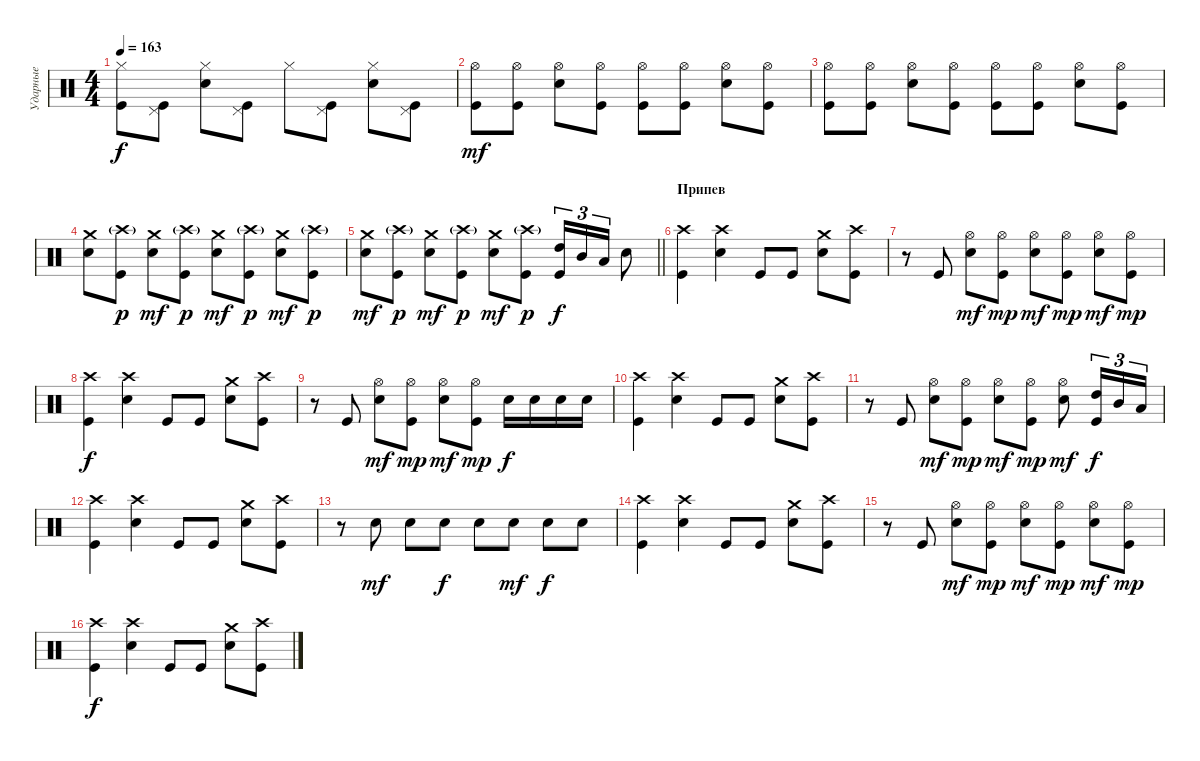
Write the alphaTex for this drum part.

\track ("Ударные" "Ударные") {instrument percussion}
\staff
\articulation defaults
\ts (4 4)
\tempo 163
\clef neutral
\ks c
("Hi-Hat (closed)" "Kick (hit)").8{dy f} ("Pedal Hi-Hat (hit)" "Kick (hit)").8 ("Hi-Hat (closed)" "Snare (hit) 2").8 ("Pedal Hi-Hat (hit)" "Kick (hit)").8 "Hi-Hat (closed)".8 ("Pedal Hi-Hat (hit)" "Kick (hit)").8 ("Hi-Hat (closed)" "Snare (hit) 2").8 ("Pedal Hi-Hat (hit)" "Kick (hit)").8 |
("Hi-Hat (open)" "Kick (hit)").8{dy mf} ("Hi-Hat (open)" "Kick (hit)").8 ("Hi-Hat (open)" "Snare (hit) 2").8 ("Hi-Hat (open)" "Kick (hit)").8 ("Hi-Hat (open)" "Kick (hit)").8 ("Hi-Hat (open)" "Kick (hit)").8 ("Hi-Hat (open)" "Snare (hit) 2").8 ("Hi-Hat (open)" "Kick (hit)").8 |
("Hi-Hat (open)" "Kick (hit)").8 ("Hi-Hat (open)" "Kick (hit)").8 ("Hi-Hat (open)" "Snare (hit) 2").8 ("Hi-Hat (open)" "Kick (hit)").8 ("Hi-Hat (open)" "Kick (hit)").8 ("Hi-Hat (open)" "Kick (hit)").8 ("Hi-Hat (open)" "Snare (hit) 2").8 ("Hi-Hat (open)" "Kick (hit)").8 |
("Crash medium (hit)" "Snare (hit) 2").8 ("Crash high (hit)"{g} "Kick (hit)").8{dy p} ("Crash medium (hit)" "Snare (hit) 2").8{dy mf} ("Crash high (hit)"{g} "Kick (hit)").8{dy p} ("Crash medium (hit)" "Snare (hit) 2").8{dy mf} ("Crash high (hit)"{g} "Kick (hit)").8{dy p} ("Crash medium (hit)" "Snare (hit) 2").8{dy mf} ("Crash high (hit)"{g} "Kick (hit)").8{dy p} |
\barLineRight lightlight
("Crash medium (hit)" "Snare (hit) 2").8{dy mf} ("Crash high (hit)"{g} "Kick (hit)").8{dy p} ("Crash medium (hit)" "Snare (hit) 2").8{dy mf} ("Crash high (hit)"{g} "Kick (hit)").8{dy p} ("Crash medium (hit)" "Snare (hit) 2").8{dy mf} ("Crash high (hit)"{g} "Kick (hit)").8{dy p} ("High Tom (hit)" "Kick (hit)").16{tu (3 2) dy f} "Mid Tom (hit)".16{tu (3 2)} "Low Tom (hit)".16{tu (3 2)} "Snare (hit) 2".8 |
\section ("" "Припев")
("Crash high (hit)" "Kick (hit)").4 ("Crash high (hit)" "Snare (hit) 2").4 "Kick (hit)".8 "Kick (hit)".8 ("Crash medium (hit)" "Snare (hit) 2").8 ("Crash high (hit)" "Kick (hit)").8 |
r.8 "Kick (hit)".8 ("Hi-Hat (open)" "Snare (hit) 2").8{dy mf} ("Hi-Hat (open)" "Kick (hit)").8{dy mp} ("Hi-Hat (open)" "Snare (hit) 2").8{dy mf} ("Hi-Hat (open)" "Kick (hit)").8{dy mp} ("Hi-Hat (open)" "Snare (hit) 2").8{dy mf} ("Hi-Hat (open)" "Kick (hit)").8{dy mp} |
("Crash high (hit)" "Kick (hit)").4{dy f} ("Crash high (hit)" "Snare (hit) 2").4 "Kick (hit)".8 "Kick (hit)".8 ("Crash medium (hit)" "Snare (hit) 2").8 ("Crash high (hit)" "Kick (hit)").8 |
r.8 "Kick (hit)".8 ("Hi-Hat (open)" "Snare (hit) 2").8{dy mf} ("Hi-Hat (open)" "Kick (hit)").8{dy mp} ("Hi-Hat (open)" "Snare (hit) 2").8{dy mf} ("Hi-Hat (open)" "Kick (hit)").8{dy mp} "Snare (hit) 2".16{dy f} "Snare (hit) 2".16 "Snare (hit) 2".16 "Snare (hit) 2".16 |
("Crash high (hit)" "Kick (hit)").4 ("Crash high (hit)" "Snare (hit) 2").4 "Kick (hit)".8 "Kick (hit)".8 ("Crash medium (hit)" "Snare (hit) 2").8 ("Crash high (hit)" "Kick (hit)").8 |
r.8 "Kick (hit)".8 ("Hi-Hat (open)" "Snare (hit) 2").8{dy mf} ("Hi-Hat (open)" "Kick (hit)").8{dy mp} ("Hi-Hat (open)" "Snare (hit) 2").8{dy mf} ("Hi-Hat (open)" "Kick (hit)").8{dy mp} ("Hi-Hat (open)" "Snare (hit) 2").8{dy mf} ("High Tom (hit)" "Kick (hit)").16{tu (3 2) dy f} "Mid Tom (hit)".16{tu (3 2)} "Low Tom (hit)".16{tu (3 2)} |
("Crash high (hit)" "Kick (hit)").4 ("Crash high (hit)" "Snare (hit) 2").4 "Kick (hit)".8 "Kick (hit)".8 ("Crash medium (hit)" "Snare (hit) 2").8 ("Crash high (hit)" "Kick (hit)").8 |
r.8 "Snare (hit) 2".8{dy mf} "Snare (hit) 2".8 "Snare (hit) 2".8{dy f} "Snare (hit) 2".8 "Snare (hit) 2".8{dy mf} "Snare (hit) 2".8{dy f} "Snare (hit) 2".8 |
("Crash high (hit)" "Kick (hit)").4 ("Crash high (hit)" "Snare (hit) 2").4 "Kick (hit)".8 "Kick (hit)".8 ("Crash medium (hit)" "Snare (hit) 2").8 ("Crash high (hit)" "Kick (hit)").8 |
r.8 "Kick (hit)".8 ("Hi-Hat (open)" "Snare (hit) 2").8{dy mf} ("Hi-Hat (open)" "Kick (hit)").8{dy mp} ("Hi-Hat (open)" "Snare (hit) 2").8{dy mf} ("Hi-Hat (open)" "Kick (hit)").8{dy mp} ("Hi-Hat (open)" "Snare (hit) 2").8{dy mf} ("Hi-Hat (open)" "Kick (hit)").8{dy mp} |
("Crash high (hit)" "Kick (hit)").4{dy f} ("Crash high (hit)" "Snare (hit) 2").4 "Kick (hit)".8 "Kick (hit)".8 ("Crash medium (hit)" "Snare (hit) 2").8 ("Crash high (hit)" "Kick (hit)").8
